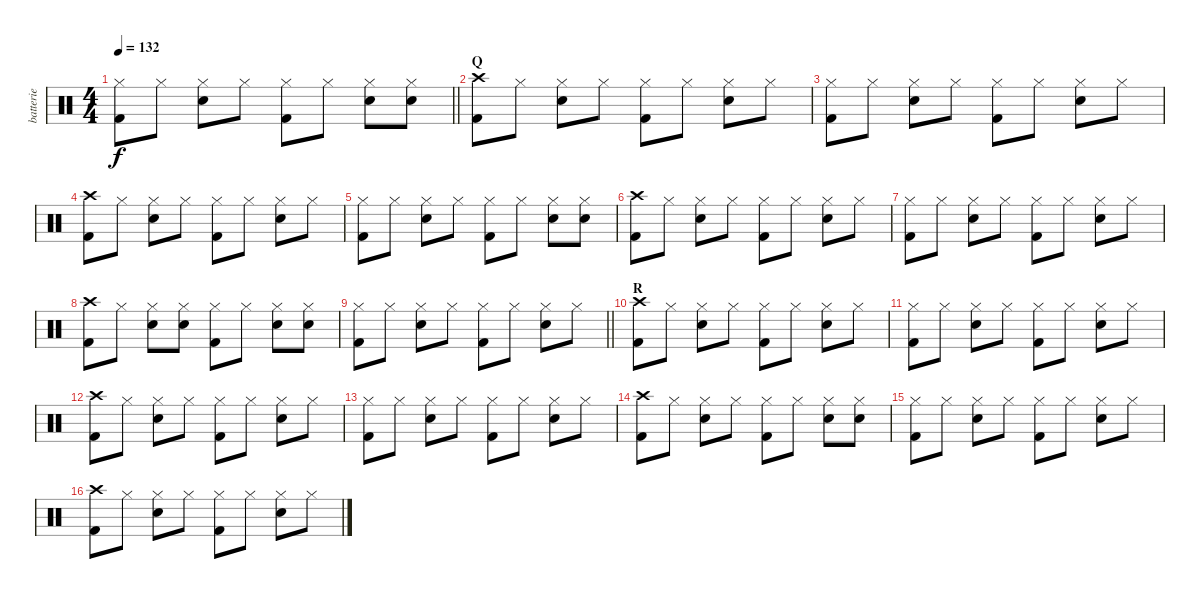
\track ("batterie" "batterie") {instrument percussion}
\staff {score}
\articulation defaults
\ts (4 4)
\tempo 132
\clef neutral
\barLineRight lightlight
\ks c
("Hi-Hat (closed)" "Kick (hit) 2").8{dy f} "Hi-Hat (closed)".8 ("Hi-Hat (closed)" "Electric Snare (hit)").8 "Hi-Hat (closed)".8 ("Hi-Hat (closed)" "Kick (hit) 2").8 "Hi-Hat (closed)".8 ("Hi-Hat (closed)" "Electric Snare (hit)").8 ("Hi-Hat (closed)" "Electric Snare (hit)").8 |
\section ("" "Q")
("Crash high (hit)" "Kick (hit) 2").8 "Hi-Hat (closed)".8 ("Hi-Hat (closed)" "Electric Snare (hit)").8 "Hi-Hat (closed)".8 ("Hi-Hat (closed)" "Kick (hit) 2").8 "Hi-Hat (closed)".8 ("Hi-Hat (closed)" "Electric Snare (hit)").8 "Hi-Hat (closed)".8 |
("Hi-Hat (closed)" "Kick (hit) 2").8 "Hi-Hat (closed)".8 ("Hi-Hat (closed)" "Electric Snare (hit)").8 "Hi-Hat (closed)".8 ("Hi-Hat (closed)" "Kick (hit) 2").8 "Hi-Hat (closed)".8 ("Hi-Hat (closed)" "Electric Snare (hit)").8 "Hi-Hat (closed)".8 |
("Crash high (hit)" "Kick (hit) 2").8 "Hi-Hat (closed)".8 ("Hi-Hat (closed)" "Electric Snare (hit)").8 "Hi-Hat (closed)".8 ("Hi-Hat (closed)" "Kick (hit) 2").8 "Hi-Hat (closed)".8 ("Hi-Hat (closed)" "Electric Snare (hit)").8 "Hi-Hat (closed)".8 |
("Hi-Hat (closed)" "Kick (hit) 2").8 "Hi-Hat (closed)".8 ("Hi-Hat (closed)" "Electric Snare (hit)").8 "Hi-Hat (closed)".8 ("Hi-Hat (closed)" "Kick (hit) 2").8 "Hi-Hat (closed)".8 ("Hi-Hat (closed)" "Electric Snare (hit)").8 ("Hi-Hat (closed)" "Electric Snare (hit)").8 |
("Crash high (hit)" "Kick (hit) 2").8 "Hi-Hat (closed)".8 ("Hi-Hat (closed)" "Electric Snare (hit)").8 "Hi-Hat (closed)".8 ("Hi-Hat (closed)" "Kick (hit) 2").8 "Hi-Hat (closed)".8 ("Hi-Hat (closed)" "Electric Snare (hit)").8 "Hi-Hat (closed)".8 |
("Hi-Hat (closed)" "Kick (hit) 2").8 "Hi-Hat (closed)".8 ("Hi-Hat (closed)" "Electric Snare (hit)").8 "Hi-Hat (closed)".8 ("Hi-Hat (closed)" "Kick (hit) 2").8 "Hi-Hat (closed)".8 ("Hi-Hat (closed)" "Electric Snare (hit)").8 "Hi-Hat (closed)".8 |
("Crash high (hit)" "Kick (hit) 2").8 "Hi-Hat (closed)".8 ("Hi-Hat (closed)" "Electric Snare (hit)").8 ("Hi-Hat (closed)" "Electric Snare (hit)").8 ("Hi-Hat (closed)" "Kick (hit) 2").8 "Hi-Hat (closed)".8 ("Hi-Hat (closed)" "Electric Snare (hit)").8 ("Hi-Hat (closed)" "Electric Snare (hit)").8 |
\barLineRight lightlight
("Hi-Hat (closed)" "Kick (hit) 2").8 "Hi-Hat (closed)".8 ("Hi-Hat (closed)" "Electric Snare (hit)").8 "Hi-Hat (closed)".8 ("Hi-Hat (closed)" "Kick (hit) 2").8 "Hi-Hat (closed)".8 ("Hi-Hat (closed)" "Electric Snare (hit)").8 "Hi-Hat (closed)".8 |
\section ("" "R")
("Crash high (hit)" "Kick (hit) 2").8 "Hi-Hat (closed)".8 ("Hi-Hat (closed)" "Electric Snare (hit)").8 "Hi-Hat (closed)".8 ("Hi-Hat (closed)" "Kick (hit) 2").8 "Hi-Hat (closed)".8 ("Hi-Hat (closed)" "Electric Snare (hit)").8 "Hi-Hat (closed)".8 |
("Hi-Hat (closed)" "Kick (hit) 2").8 "Hi-Hat (closed)".8 ("Hi-Hat (closed)" "Electric Snare (hit)").8 "Hi-Hat (closed)".8 ("Hi-Hat (closed)" "Kick (hit) 2").8 "Hi-Hat (closed)".8 ("Hi-Hat (closed)" "Electric Snare (hit)").8 "Hi-Hat (closed)".8 |
("Crash high (hit)" "Kick (hit) 2").8 "Hi-Hat (closed)".8 ("Hi-Hat (closed)" "Electric Snare (hit)").8 "Hi-Hat (closed)".8 ("Hi-Hat (closed)" "Kick (hit) 2").8 "Hi-Hat (closed)".8 ("Hi-Hat (closed)" "Electric Snare (hit)").8 "Hi-Hat (closed)".8 |
("Hi-Hat (closed)" "Kick (hit) 2").8 "Hi-Hat (closed)".8 ("Hi-Hat (closed)" "Electric Snare (hit)").8 "Hi-Hat (closed)".8 ("Hi-Hat (closed)" "Kick (hit) 2").8 "Hi-Hat (closed)".8 ("Hi-Hat (closed)" "Electric Snare (hit)").8 "Hi-Hat (closed)".8 |
("Crash high (hit)" "Kick (hit) 2").8 "Hi-Hat (closed)".8 ("Hi-Hat (closed)" "Electric Snare (hit)").8 "Hi-Hat (closed)".8 ("Hi-Hat (closed)" "Kick (hit) 2").8 "Hi-Hat (closed)".8 ("Hi-Hat (closed)" "Electric Snare (hit)").8 ("Hi-Hat (closed)" "Electric Snare (hit)").8 |
("Hi-Hat (closed)" "Kick (hit) 2").8 "Hi-Hat (closed)".8 ("Hi-Hat (closed)" "Electric Snare (hit)").8 "Hi-Hat (closed)".8 ("Hi-Hat (closed)" "Kick (hit) 2").8 "Hi-Hat (closed)".8 ("Hi-Hat (closed)" "Electric Snare (hit)").8 "Hi-Hat (closed)".8 |
("Crash high (hit)" "Kick (hit) 2").8 "Hi-Hat (closed)".8 ("Hi-Hat (closed)" "Electric Snare (hit)").8 "Hi-Hat (closed)".8 ("Hi-Hat (closed)" "Kick (hit) 2").8 "Hi-Hat (closed)".8 ("Hi-Hat (closed)" "Electric Snare (hit)").8 "Hi-Hat (closed)".8
